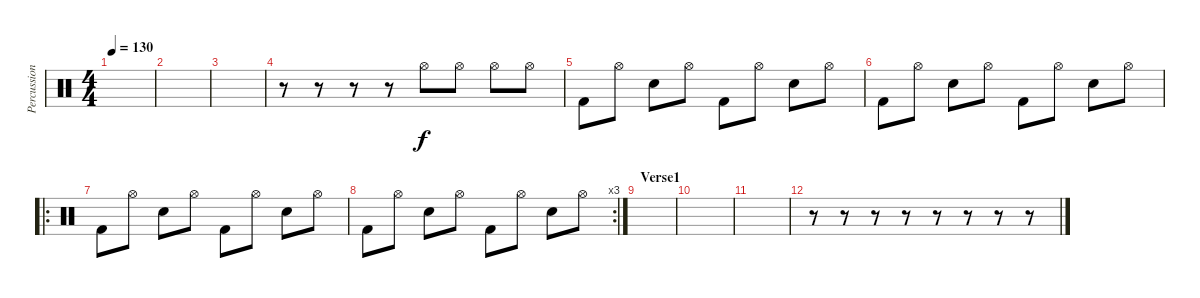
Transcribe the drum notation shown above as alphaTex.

\track ("Percussion" "Percussion") {instrument percussion}
\staff {score}
\articulation defaults
\ts (4 4)
\tempo 130
\clef neutral
\ks c
|
|
|
r.8 r.8 r.8 r.8 "Hi-Hat (open)".8 "Hi-Hat (open)".8 "Hi-Hat (open)".8 "Hi-Hat (open)".8 |
"Kick (hit) 2".8 "Hi-Hat (open)".8 "Electric Snare (hit)".8 "Hi-Hat (open)".8 "Kick (hit) 2".8 "Hi-Hat (open)".8 "Electric Snare (hit)".8 "Hi-Hat (open)".8 |
"Kick (hit) 2".8 "Hi-Hat (open)".8 "Electric Snare (hit)".8 "Hi-Hat (open)".8 "Kick (hit) 2".8 "Hi-Hat (open)".8 "Electric Snare (hit)".8 "Hi-Hat (open)".8 |
\ro "Kick (hit) 2".8 "Hi-Hat (open)".8 "Electric Snare (hit)".8 "Hi-Hat (open)".8 "Kick (hit) 2".8 "Hi-Hat (open)".8 "Electric Snare (hit)".8 "Hi-Hat (open)".8
|
\rc 3 "Kick (hit) 2".8 "Hi-Hat (open)".8 "Electric Snare (hit)".8 "Hi-Hat (open)".8 "Kick (hit) 2".8 "Hi-Hat (open)".8 "Electric Snare (hit)".8 "Hi-Hat (open)".8
|
\section ("" "Verse1")
|
|
|
r.8 r.8 r.8 r.8 r.8 r.8 r.8 r.8
